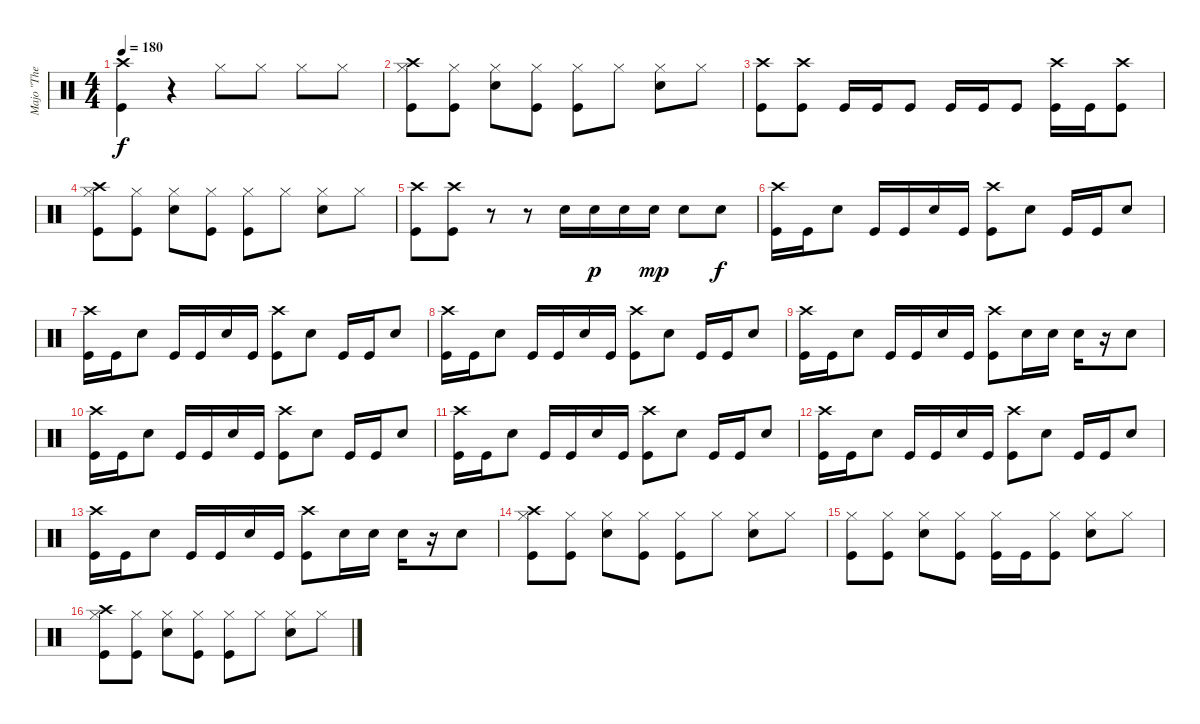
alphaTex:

\track ("Majo \"The Dremmel\" Hirt" "Majo \"The ") {instrument percussion}
\staff {score}
\articulation defaults
\ts (4 4)
\tempo 180
\clef neutral
\ks c
("Crash high (hit)" "Kick (hit)").4{dy f} r.4 "Hi-Hat (closed)".8 "Hi-Hat (closed)".8 "Hi-Hat (closed)".8 "Hi-Hat (closed)".8 |
("Crash high (hit)" "Hi-Hat (closed)" "Kick (hit)").8 ("Hi-Hat (closed)" "Kick (hit)").8 ("Hi-Hat (closed)" "Electric Snare (hit)").8 ("Hi-Hat (closed)" "Kick (hit)").8 ("Hi-Hat (closed)" "Kick (hit)").8 "Hi-Hat (closed)".8 ("Hi-Hat (closed)" "Electric Snare (hit)").8 "Hi-Hat (closed)".8 |
("Crash high (hit)" "Kick (hit)").8 ("Crash high (hit)" "Kick (hit)").8 "Kick (hit)".16 "Kick (hit)".16 "Kick (hit)".8 "Kick (hit)".16 "Kick (hit)".16 "Kick (hit)".8 ("Crash high (hit)" "Kick (hit)").16 "Kick (hit)".16 ("Crash high (hit)" "Kick (hit)").8 |
("Crash high (hit)" "Hi-Hat (closed)" "Kick (hit)").8 ("Hi-Hat (closed)" "Kick (hit)").8 ("Hi-Hat (closed)" "Electric Snare (hit)").8 ("Hi-Hat (closed)" "Kick (hit)").8 ("Hi-Hat (closed)" "Kick (hit)").8 "Hi-Hat (closed)".8 ("Hi-Hat (closed)" "Electric Snare (hit)").8 "Hi-Hat (closed)".8 |
("Crash high (hit)" "Kick (hit)").8 ("Crash high (hit)" "Kick (hit)").8 r.8 r.8 "Electric Snare (hit)".16 "Electric Snare (hit)".16{dy p} "Electric Snare (hit)".16 "Electric Snare (hit)".16{dy mp} "Electric Snare (hit)".8 "Electric Snare (hit)".8{dy f} |
("Crash high (hit)" "Kick (hit)").16 "Kick (hit)".16 "Electric Snare (hit)".8 "Kick (hit)".16 "Kick (hit)".16 "Electric Snare (hit)".16 "Kick (hit)".16 ("Crash high (hit)" "Kick (hit)").8 "Electric Snare (hit)".8 "Kick (hit)".16 "Kick (hit)".16 "Electric Snare (hit)".8 |
("Crash high (hit)" "Kick (hit)").16 "Kick (hit)".16 "Electric Snare (hit)".8 "Kick (hit)".16 "Kick (hit)".16 "Electric Snare (hit)".16 "Kick (hit)".16 ("Crash high (hit)" "Kick (hit)").8 "Electric Snare (hit)".8 "Kick (hit)".16 "Kick (hit)".16 "Electric Snare (hit)".8 |
("Crash high (hit)" "Kick (hit)").16 "Kick (hit)".16 "Electric Snare (hit)".8 "Kick (hit)".16 "Kick (hit)".16 "Electric Snare (hit)".16 "Kick (hit)".16 ("Crash high (hit)" "Kick (hit)").8 "Electric Snare (hit)".8 "Kick (hit)".16 "Kick (hit)".16 "Electric Snare (hit)".8 |
("Crash high (hit)" "Kick (hit)").16 "Kick (hit)".16 "Electric Snare (hit)".8 "Kick (hit)".16 "Kick (hit)".16 "Electric Snare (hit)".16 "Kick (hit)".16 ("Crash high (hit)" "Kick (hit)").8 "Snare (hit) 2".16 "Snare (hit) 2".16 "Snare (hit) 2".16 r.16 "Snare (hit) 2".8 |
("Crash high (hit)" "Kick (hit)").16 "Kick (hit)".16 "Electric Snare (hit)".8 "Kick (hit)".16 "Kick (hit)".16 "Electric Snare (hit)".16 "Kick (hit)".16 ("Crash high (hit)" "Kick (hit)").8 "Electric Snare (hit)".8 "Kick (hit)".16 "Kick (hit)".16 "Electric Snare (hit)".8 |
("Crash high (hit)" "Kick (hit)").16 "Kick (hit)".16 "Electric Snare (hit)".8 "Kick (hit)".16 "Kick (hit)".16 "Electric Snare (hit)".16 "Kick (hit)".16 ("Crash high (hit)" "Kick (hit)").8 "Electric Snare (hit)".8 "Kick (hit)".16 "Kick (hit)".16 "Electric Snare (hit)".8 |
("Crash high (hit)" "Kick (hit)").16 "Kick (hit)".16 "Electric Snare (hit)".8 "Kick (hit)".16 "Kick (hit)".16 "Electric Snare (hit)".16 "Kick (hit)".16 ("Crash high (hit)" "Kick (hit)").8 "Electric Snare (hit)".8 "Kick (hit)".16 "Kick (hit)".16 "Electric Snare (hit)".8 |
("Crash high (hit)" "Kick (hit)").16 "Kick (hit)".16 "Electric Snare (hit)".8 "Kick (hit)".16 "Kick (hit)".16 "Electric Snare (hit)".16 "Kick (hit)".16 ("Crash high (hit)" "Kick (hit)").8 "Snare (hit) 2".16 "Snare (hit) 2".16 "Snare (hit) 2".16 r.16 "Snare (hit) 2".8 |
("Crash high (hit)" "Hi-Hat (closed)" "Kick (hit)").8 ("Hi-Hat (closed)" "Kick (hit)").8 ("Hi-Hat (closed)" "Electric Snare (hit)").8 ("Hi-Hat (closed)" "Kick (hit)").8 ("Hi-Hat (closed)" "Kick (hit)").8 "Hi-Hat (closed)".8 ("Hi-Hat (closed)" "Electric Snare (hit)").8 "Hi-Hat (closed)".8 |
("Hi-Hat (closed)" "Kick (hit)").8 ("Hi-Hat (closed)" "Kick (hit)").8 ("Hi-Hat (closed)" "Electric Snare (hit)").8 ("Hi-Hat (closed)" "Kick (hit)").8 ("Hi-Hat (closed)" "Kick (hit)").16 "Kick (hit)".16 ("Hi-Hat (closed)" "Kick (hit)").8 ("Hi-Hat (closed)" "Electric Snare (hit)").8 "Hi-Hat (closed)".8 |
("Crash high (hit)" "Hi-Hat (closed)" "Kick (hit)").8 ("Hi-Hat (closed)" "Kick (hit)").8 ("Hi-Hat (closed)" "Electric Snare (hit)").8 ("Hi-Hat (closed)" "Kick (hit)").8 ("Hi-Hat (closed)" "Kick (hit)").8 "Hi-Hat (closed)".8 ("Hi-Hat (closed)" "Electric Snare (hit)").8 "Hi-Hat (closed)".8
